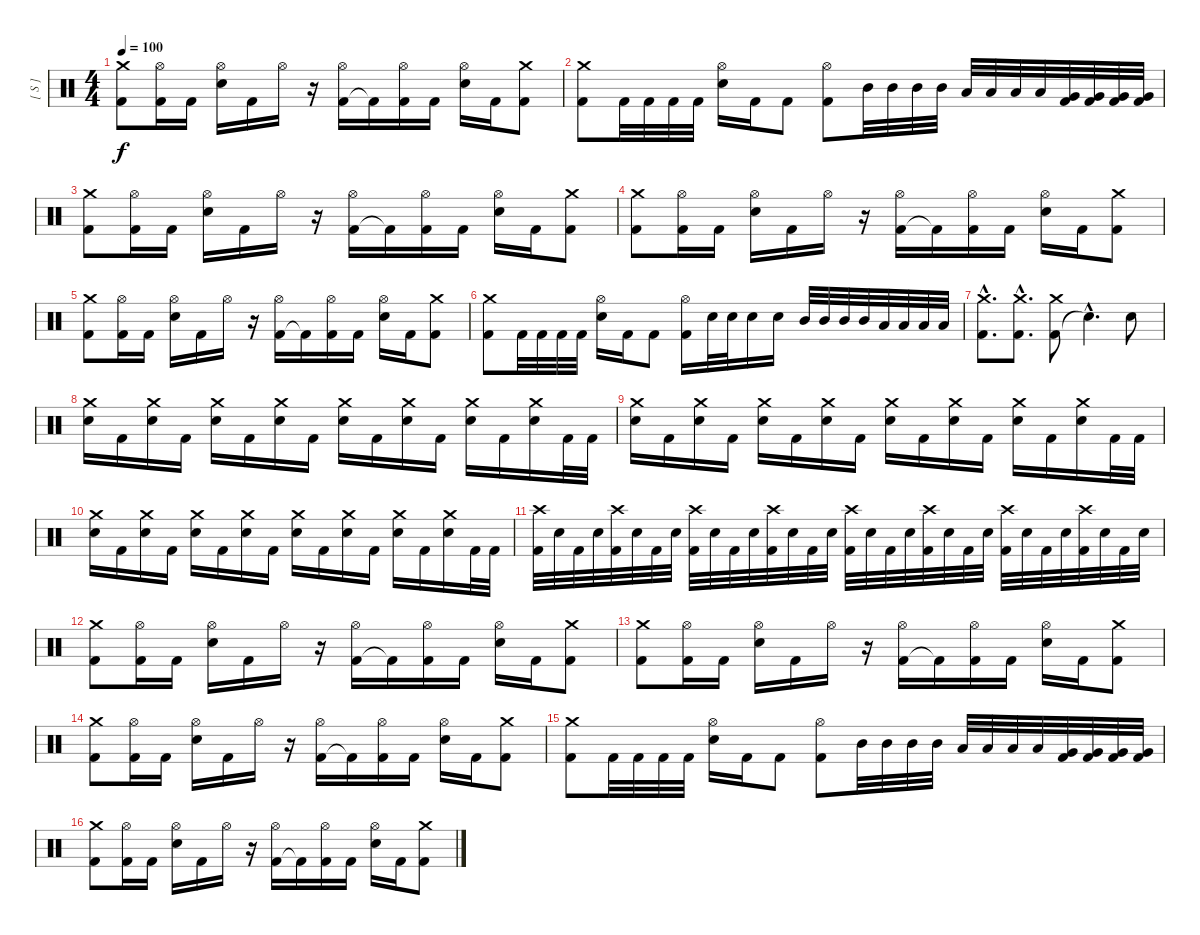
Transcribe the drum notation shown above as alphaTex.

\track ("[ S ]" "[ S ]") {instrument percussion}
\staff {score}
\articulation defaults
\ts (4 4)
\tempo 100
\clef neutral
\ks c
("Kick (hit) 2" "Crash medium (hit)").8{dy f} ("Kick (hit) 2" "Hi-Hat (open)").16 "Kick (hit) 2".16 ("Electric Snare (hit)" "Hi-Hat (open)").16 "Kick (hit) 2".16 "Hi-Hat (open)".16 r.16 ("Kick (hit) 2" "Hi-Hat (open)").16 "Kick (hit) 2"{t}.16 ("Kick (hit) 2" "Hi-Hat (open)").16 "Kick (hit) 2".16 ("Electric Snare (hit)" "Hi-Hat (open)").16 "Kick (hit) 2".16 ("Kick (hit) 2" "Crash medium (hit)").8 |
("Kick (hit) 2" "Crash medium (hit)").8 "Kick (hit) 2".32 "Kick (hit) 2".32 "Kick (hit) 2".32 "Kick (hit) 2".32 ("Electric Snare (hit)" "Hi-Hat (open)").16 "Kick (hit) 2".16 "Kick (hit) 2".8 ("Kick (hit) 2" "Hi-Hat (open)").8 "Mid Tom (hit)".32 "Mid Tom (hit)".32 "Mid Tom (hit)".32 "Mid Tom (hit)".32 "Low Tom (hit)".32 "Low Tom (hit)".32 "Low Tom (hit)".32 "Low Tom (hit)".32 ("Very Low Tom (hit)" "Kick (hit) 2").32 ("Very Low Tom (hit)" "Kick (hit) 2").32 ("Very Low Tom (hit)" "Kick (hit) 2").32 ("Very Low Tom (hit)" "Kick (hit) 2").32 |
("Kick (hit) 2" "Crash medium (hit)").8 ("Kick (hit) 2" "Hi-Hat (open)").16 "Kick (hit) 2".16 ("Electric Snare (hit)" "Hi-Hat (open)").16 "Kick (hit) 2".16 "Hi-Hat (open)".16 r.16 ("Kick (hit) 2" "Hi-Hat (open)").16 "Kick (hit) 2"{t}.16 ("Kick (hit) 2" "Hi-Hat (open)").16 "Kick (hit) 2".16 ("Electric Snare (hit)" "Hi-Hat (open)").16 "Kick (hit) 2".16 ("Kick (hit) 2" "Crash medium (hit)").8 |
("Kick (hit) 2" "Crash medium (hit)").8 ("Kick (hit) 2" "Hi-Hat (open)").16 "Kick (hit) 2".16 ("Electric Snare (hit)" "Hi-Hat (open)").16 "Kick (hit) 2".16 "Hi-Hat (open)".16 r.16 ("Kick (hit) 2" "Hi-Hat (open)").16 "Kick (hit) 2"{t}.16 ("Kick (hit) 2" "Hi-Hat (open)").16 "Kick (hit) 2".16 ("Electric Snare (hit)" "Hi-Hat (open)").16 "Kick (hit) 2".16 ("Kick (hit) 2" "Crash medium (hit)").8 |
("Kick (hit) 2" "Crash medium (hit)").8 ("Kick (hit) 2" "Hi-Hat (open)").16 "Kick (hit) 2".16 ("Electric Snare (hit)" "Hi-Hat (open)").16 "Kick (hit) 2".16 "Hi-Hat (open)".16 r.16 ("Kick (hit) 2" "Hi-Hat (open)").16 "Kick (hit) 2"{t}.16 ("Kick (hit) 2" "Hi-Hat (open)").16 "Kick (hit) 2".16 ("Electric Snare (hit)" "Hi-Hat (open)").16 "Kick (hit) 2".16 ("Kick (hit) 2" "Crash medium (hit)").8 |
("Kick (hit) 2" "Crash medium (hit)").8 "Kick (hit) 2".32 "Kick (hit) 2".32 "Kick (hit) 2".32 "Kick (hit) 2".32 ("Electric Snare (hit)" "Hi-Hat (open)").16 "Kick (hit) 2".16 "Kick (hit) 2".8 ("Kick (hit) 2" "Hi-Hat (open)").16 "Electric Snare (hit)".32 "Electric Snare (hit)".32 "Electric Snare (hit)".16 "Electric Snare (hit)".16 "Mid Tom (hit)".32 "Mid Tom (hit)".32 "Mid Tom (hit)".32 "Mid Tom (hit)".32 "Low Tom (hit)".32 "Low Tom (hit)".32 "Low Tom (hit)".32 "Low Tom (hit)".32 |
("Kick (hit) 2"{hac} "Crash medium (hit)"{hac}).8{d} ("Kick (hit) 2"{hac} "Crash medium (hit)"{hac}).8{d} ("Kick (hit) 2" "Crash medium (hit)").8 "Snare (hit)"{hac t}.4{d} "Electric Snare (hit)".8 |
("Electric Snare (hit)" "Crash medium (hit)").16 "Kick (hit) 2".16 ("Electric Snare (hit)" "Crash medium (hit)").16 "Kick (hit) 2".16 ("Electric Snare (hit)" "Crash medium (hit)").16 "Kick (hit) 2".16 ("Electric Snare (hit)" "Crash medium (hit)").16 "Kick (hit) 2".16 ("Electric Snare (hit)" "Crash medium (hit)").16 "Kick (hit) 2".16 ("Electric Snare (hit)" "Crash medium (hit)").16 "Kick (hit) 2".16 ("Electric Snare (hit)" "Crash medium (hit)").16 "Kick (hit) 2".16 ("Electric Snare (hit)" "Crash medium (hit)").16 "Kick (hit) 2".32 "Kick (hit) 2".32 |
("Electric Snare (hit)" "Crash medium (hit)").16 "Kick (hit) 2".16 ("Electric Snare (hit)" "Crash medium (hit)").16 "Kick (hit) 2".16 ("Electric Snare (hit)" "Crash medium (hit)").16 "Kick (hit) 2".16 ("Electric Snare (hit)" "Crash medium (hit)").16 "Kick (hit) 2".16 ("Electric Snare (hit)" "Crash medium (hit)").16 "Kick (hit) 2".16 ("Electric Snare (hit)" "Crash medium (hit)").16 "Kick (hit) 2".16 ("Electric Snare (hit)" "Crash medium (hit)").16 "Kick (hit) 2".16 ("Electric Snare (hit)" "Crash medium (hit)").16 "Kick (hit) 2".32 "Kick (hit) 2".32 |
("Electric Snare (hit)" "Crash medium (hit)").16 "Kick (hit) 2".16 ("Electric Snare (hit)" "Crash medium (hit)").16 "Kick (hit) 2".16 ("Electric Snare (hit)" "Crash medium (hit)").16 "Kick (hit) 2".16 ("Electric Snare (hit)" "Crash medium (hit)").16 "Kick (hit) 2".16 ("Electric Snare (hit)" "Crash medium (hit)").16 "Kick (hit) 2".16 ("Electric Snare (hit)" "Crash medium (hit)").16 "Kick (hit) 2".16 ("Electric Snare (hit)" "Crash medium (hit)").16 "Kick (hit) 2".16 ("Electric Snare (hit)" "Crash medium (hit)").16 "Kick (hit) 2".32 "Kick (hit) 2".32 |
("Kick (hit) 2" "Crash high (hit)").32 "Electric Snare (hit)".32 "Kick (hit) 2".32 "Electric Snare (hit)".32 ("Kick (hit) 2" "Crash high (hit)").32 "Electric Snare (hit)".32 "Kick (hit) 2".32 "Electric Snare (hit)".32 ("Kick (hit) 2" "Crash high (hit)").32 "Electric Snare (hit)".32 "Kick (hit) 2".32 "Electric Snare (hit)".32 ("Kick (hit) 2" "Crash high (hit)").32 "Electric Snare (hit)".32 "Kick (hit) 2".32 "Electric Snare (hit)".32 ("Kick (hit) 2" "Crash high (hit)").32 "Electric Snare (hit)".32 "Kick (hit) 2".32 "Electric Snare (hit)".32 ("Kick (hit) 2" "Crash high (hit)").32 "Electric Snare (hit)".32 "Kick (hit) 2".32 "Electric Snare (hit)".32 ("Kick (hit) 2" "Crash high (hit)").32 "Electric Snare (hit)".32 "Kick (hit) 2".32 "Electric Snare (hit)".32 ("Kick (hit) 2" "Crash high (hit)").32 "Electric Snare (hit)".32 "Kick (hit) 2".32 "Electric Snare (hit)".32 |
("Kick (hit) 2" "Crash medium (hit)").8 ("Kick (hit) 2" "Hi-Hat (open)").16 "Kick (hit) 2".16 ("Electric Snare (hit)" "Hi-Hat (open)").16 "Kick (hit) 2".16 "Hi-Hat (open)".16 r.16 ("Kick (hit) 2" "Hi-Hat (open)").16 "Kick (hit) 2"{t}.16 ("Kick (hit) 2" "Hi-Hat (open)").16 "Kick (hit) 2".16 ("Electric Snare (hit)" "Hi-Hat (open)").16 "Kick (hit) 2".16 ("Kick (hit) 2" "Crash medium (hit)").8 |
("Kick (hit) 2" "Crash medium (hit)").8 ("Kick (hit) 2" "Hi-Hat (open)").16 "Kick (hit) 2".16 ("Electric Snare (hit)" "Hi-Hat (open)").16 "Kick (hit) 2".16 "Hi-Hat (open)".16 r.16 ("Kick (hit) 2" "Hi-Hat (open)").16 "Kick (hit) 2"{t}.16 ("Kick (hit) 2" "Hi-Hat (open)").16 "Kick (hit) 2".16 ("Electric Snare (hit)" "Hi-Hat (open)").16 "Kick (hit) 2".16 ("Kick (hit) 2" "Crash medium (hit)").8 |
("Kick (hit) 2" "Crash medium (hit)").8 ("Kick (hit) 2" "Hi-Hat (open)").16 "Kick (hit) 2".16 ("Electric Snare (hit)" "Hi-Hat (open)").16 "Kick (hit) 2".16 "Hi-Hat (open)".16 r.16 ("Kick (hit) 2" "Hi-Hat (open)").16 "Kick (hit) 2"{t}.16 ("Kick (hit) 2" "Hi-Hat (open)").16 "Kick (hit) 2".16 ("Electric Snare (hit)" "Hi-Hat (open)").16 "Kick (hit) 2".16 ("Kick (hit) 2" "Crash medium (hit)").8 |
("Kick (hit) 2" "Crash medium (hit)").8 "Kick (hit) 2".32 "Kick (hit) 2".32 "Kick (hit) 2".32 "Kick (hit) 2".32 ("Electric Snare (hit)" "Hi-Hat (open)").16 "Kick (hit) 2".16 "Kick (hit) 2".8 ("Kick (hit) 2" "Hi-Hat (open)").8 "Mid Tom (hit)".32 "Mid Tom (hit)".32 "Mid Tom (hit)".32 "Mid Tom (hit)".32 "Low Tom (hit)".32 "Low Tom (hit)".32 "Low Tom (hit)".32 "Low Tom (hit)".32 ("Very Low Tom (hit)" "Kick (hit) 2").32 ("Very Low Tom (hit)" "Kick (hit) 2").32 ("Very Low Tom (hit)" "Kick (hit) 2").32 ("Very Low Tom (hit)" "Kick (hit) 2").32 |
("Kick (hit) 2" "Crash medium (hit)").8 ("Kick (hit) 2" "Hi-Hat (open)").16 "Kick (hit) 2".16 ("Electric Snare (hit)" "Hi-Hat (open)").16 "Kick (hit) 2".16 "Hi-Hat (open)".16 r.16 ("Kick (hit) 2" "Hi-Hat (open)").16 "Kick (hit) 2"{t}.16 ("Kick (hit) 2" "Hi-Hat (open)").16 "Kick (hit) 2".16 ("Electric Snare (hit)" "Hi-Hat (open)").16 "Kick (hit) 2".16 ("Kick (hit) 2" "Crash medium (hit)").8
